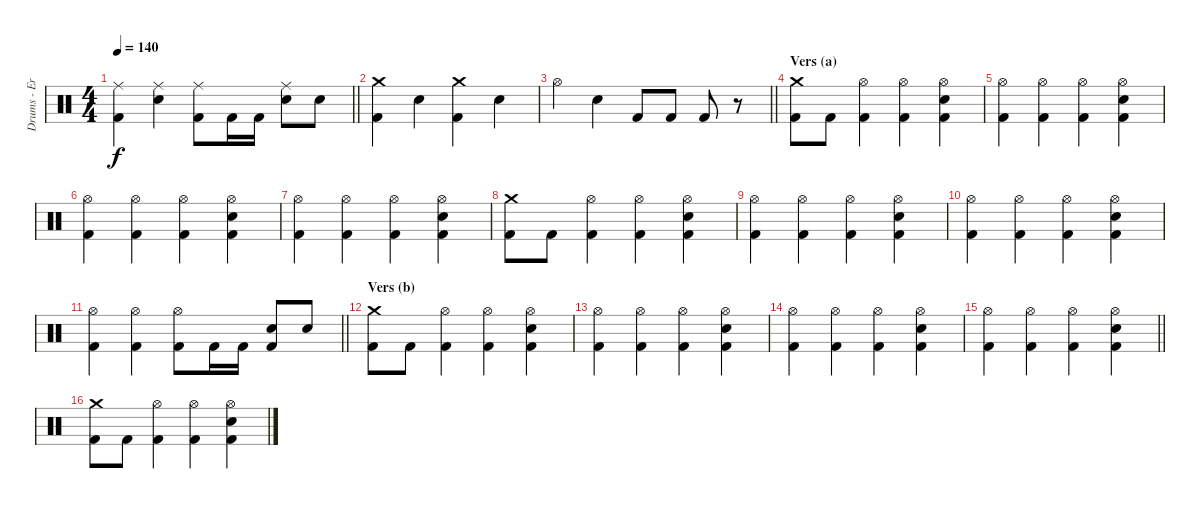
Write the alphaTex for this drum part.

\track ("Drums - Eric Young" "Drums - Er") {instrument percussion}
\staff {score}
\articulation defaults
\ts (4 4)
\tempo 140
\clef neutral
\barLineRight lightlight
\ks c
("Ride (middle)" "Kick (hit) 2").4{dy f} ("Ride (middle)" "Electric Snare (hit)").4 ("Ride (middle)" "Kick (hit) 2").8 "Kick (hit) 2".16 "Kick (hit) 2".16 ("Ride (middle)" "Electric Snare (hit)").8 "Electric Snare (hit)".8 |
("Crash medium (hit)" "Kick (hit) 2").4 "Electric Snare (hit)".4 ("Crash medium (hit)" "Kick (hit) 2").4 "Electric Snare (hit)".4 |
\barLineRight lightlight "Hi-Hat (open)".4 "Electric Snare (hit)".4 "Kick (hit) 2".8 "Kick (hit) 2".8 "Kick (hit) 2".8
r.8 |
\section ("" "Vers (a)")
("Crash medium (hit)" "Kick (hit) 2").8 "Kick (hit) 2".8 ("Hi-Hat (open)" "Kick (hit) 2").4 ("Hi-Hat (open)" "Kick (hit) 2").4 ("Hi-Hat (open)" "Electric Snare (hit)" "Kick (hit) 2").4 |
("Hi-Hat (open)" "Kick (hit) 2").4 ("Hi-Hat (open)" "Kick (hit) 2").4 ("Hi-Hat (open)" "Kick (hit) 2").4 ("Hi-Hat (open)" "Electric Snare (hit)" "Kick (hit) 2").4 |
("Hi-Hat (open)" "Kick (hit) 2").4 ("Hi-Hat (open)" "Kick (hit) 2").4 ("Hi-Hat (open)" "Kick (hit) 2").4 ("Hi-Hat (open)" "Electric Snare (hit)" "Kick (hit) 2").4 |
("Hi-Hat (open)" "Kick (hit) 2").4 ("Hi-Hat (open)" "Kick (hit) 2").4 ("Hi-Hat (open)" "Kick (hit) 2").4 ("Hi-Hat (open)" "Electric Snare (hit)" "Kick (hit) 2").4 |
("Crash medium (hit)" "Kick (hit) 2").8 "Kick (hit) 2".8 ("Hi-Hat (open)" "Kick (hit) 2").4 ("Hi-Hat (open)" "Kick (hit) 2").4 ("Hi-Hat (open)" "Electric Snare (hit)" "Kick (hit) 2").4 |
("Hi-Hat (open)" "Kick (hit) 2").4 ("Hi-Hat (open)" "Kick (hit) 2").4 ("Hi-Hat (open)" "Kick (hit) 2").4 ("Hi-Hat (open)" "Electric Snare (hit)" "Kick (hit) 2").4 |
("Hi-Hat (open)" "Kick (hit) 2").4 ("Hi-Hat (open)" "Kick (hit) 2").4 ("Hi-Hat (open)" "Kick (hit) 2").4 ("Hi-Hat (open)" "Electric Snare (hit)" "Kick (hit) 2").4 |
\barLineRight lightlight
("Hi-Hat (open)" "Kick (hit) 2").4 ("Hi-Hat (open)" "Kick (hit) 2").4 ("Hi-Hat (open)" "Kick (hit) 2").8 "Kick (hit) 2".16 "Kick (hit) 2".16 ("Electric Snare (hit)" "Kick (hit) 2").8 "Electric Snare (hit)".8 |
\section ("" "Vers (b)")
("Crash medium (hit)" "Kick (hit) 2").8 "Kick (hit) 2".8 ("Hi-Hat (open)" "Kick (hit) 2").4 ("Hi-Hat (open)" "Kick (hit) 2").4 ("Hi-Hat (open)" "Electric Snare (hit)" "Kick (hit) 2").4 |
("Hi-Hat (open)" "Kick (hit) 2").4 ("Hi-Hat (open)" "Kick (hit) 2").4 ("Hi-Hat (open)" "Kick (hit) 2").4 ("Hi-Hat (open)" "Electric Snare (hit)" "Kick (hit) 2").4 |
("Hi-Hat (open)" "Kick (hit) 2").4 ("Hi-Hat (open)" "Kick (hit) 2").4 ("Hi-Hat (open)" "Kick (hit) 2").4 ("Hi-Hat (open)" "Electric Snare (hit)" "Kick (hit) 2").4 |
\barLineRight lightlight
("Hi-Hat (open)" "Kick (hit) 2").4 ("Hi-Hat (open)" "Kick (hit) 2").4 ("Hi-Hat (open)" "Kick (hit) 2").4 ("Hi-Hat (open)" "Electric Snare (hit)" "Kick (hit) 2").4 |
("Crash medium (hit)" "Kick (hit) 2").8 "Kick (hit) 2".8 ("Hi-Hat (open)" "Kick (hit) 2").4 ("Hi-Hat (open)" "Kick (hit) 2").4 ("Hi-Hat (open)" "Electric Snare (hit)" "Kick (hit) 2").4
